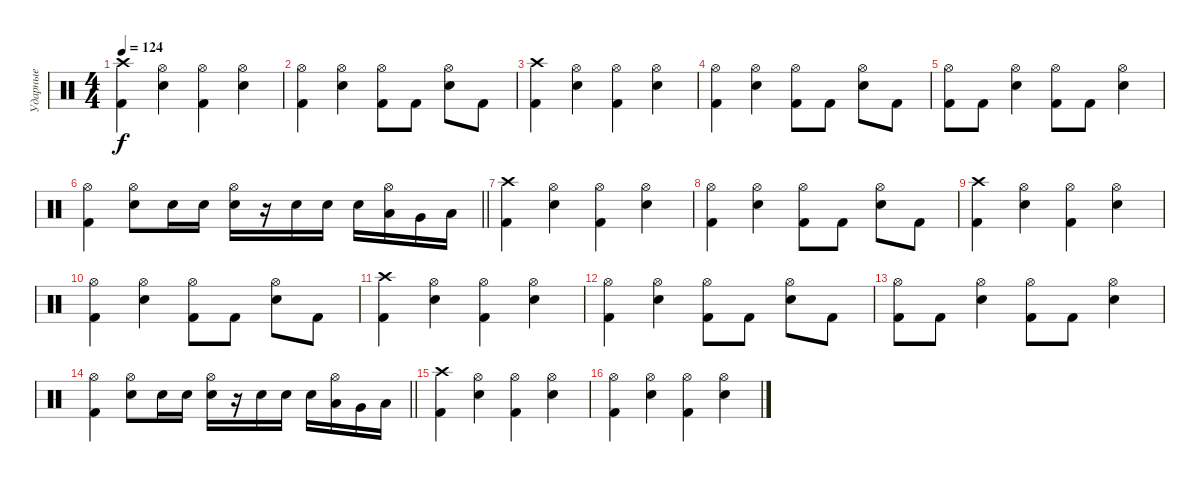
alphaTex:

\track ("Ударные" "Ударные") {instrument percussion}
\staff {score}
\articulation defaults
\ts (4 4)
\tempo 124
\clef neutral
\ks c
("Crash high (hit)" "Kick (hit) 2").4{dy f} ("Electric Snare (hit)" "Hi-Hat (open)").4 ("Kick (hit) 2" "Hi-Hat (open)").4 ("Electric Snare (hit)" "Hi-Hat (open)").4 |
("Kick (hit) 2" "Hi-Hat (open)").4 ("Electric Snare (hit)" "Hi-Hat (open)").4 ("Kick (hit) 2" "Hi-Hat (open)").8 "Kick (hit) 2".8 ("Electric Snare (hit)" "Hi-Hat (open)").8 "Kick (hit) 2".8 |
("Crash high (hit)" "Kick (hit) 2").4 ("Electric Snare (hit)" "Hi-Hat (open)").4 ("Kick (hit) 2" "Hi-Hat (open)").4 ("Electric Snare (hit)" "Hi-Hat (open)").4 |
("Kick (hit) 2" "Hi-Hat (open)").4 ("Electric Snare (hit)" "Hi-Hat (open)").4 ("Kick (hit) 2" "Hi-Hat (open)").8 "Kick (hit) 2".8 ("Electric Snare (hit)" "Hi-Hat (open)").8 "Kick (hit) 2".8 |
("Kick (hit) 2" "Hi-Hat (open)").8 "Kick (hit) 2".8 ("Electric Snare (hit)" "Hi-Hat (open)").4 ("Kick (hit) 2" "Hi-Hat (open)").8 "Kick (hit) 2".8 ("Electric Snare (hit)" "Hi-Hat (open)").4 |
\barLineRight lightlight
("Kick (hit) 2" "Hi-Hat (open)").4 ("Electric Snare (hit)" "Hi-Hat (open)").8 "Electric Snare (hit)".16 "Electric Snare (hit)".16 ("Electric Snare (hit)" "Hi-Hat (open)").16 r.16 "Electric Snare (hit)".16 "Electric Snare (hit)".16 "Electric Snare (hit)".16 ("Low Floor Tom (hit)" "Hi-Hat (open)").16 "Very Low Tom (hit)".16 "Low Floor Tom (hit)".16 |
("Crash high (hit)" "Kick (hit) 2").4 ("Electric Snare (hit)" "Hi-Hat (open)").4 ("Kick (hit) 2" "Hi-Hat (open)").4 ("Electric Snare (hit)" "Hi-Hat (open)").4 |
("Kick (hit) 2" "Hi-Hat (open)").4 ("Electric Snare (hit)" "Hi-Hat (open)").4 ("Kick (hit) 2" "Hi-Hat (open)").8 "Kick (hit) 2".8 ("Electric Snare (hit)" "Hi-Hat (open)").8 "Kick (hit) 2".8 |
("Crash high (hit)" "Kick (hit) 2").4 ("Electric Snare (hit)" "Hi-Hat (open)").4 ("Kick (hit) 2" "Hi-Hat (open)").4 ("Electric Snare (hit)" "Hi-Hat (open)").4 |
("Kick (hit) 2" "Hi-Hat (open)").4 ("Electric Snare (hit)" "Hi-Hat (open)").4 ("Kick (hit) 2" "Hi-Hat (open)").8 "Kick (hit) 2".8 ("Electric Snare (hit)" "Hi-Hat (open)").8 "Kick (hit) 2".8 |
("Crash high (hit)" "Kick (hit) 2").4 ("Electric Snare (hit)" "Hi-Hat (open)").4 ("Kick (hit) 2" "Hi-Hat (open)").4 ("Electric Snare (hit)" "Hi-Hat (open)").4 |
("Kick (hit) 2" "Hi-Hat (open)").4 ("Electric Snare (hit)" "Hi-Hat (open)").4 ("Kick (hit) 2" "Hi-Hat (open)").8 "Kick (hit) 2".8 ("Electric Snare (hit)" "Hi-Hat (open)").8 "Kick (hit) 2".8 |
("Kick (hit) 2" "Hi-Hat (open)").8 "Kick (hit) 2".8 ("Electric Snare (hit)" "Hi-Hat (open)").4 ("Kick (hit) 2" "Hi-Hat (open)").8 "Kick (hit) 2".8 ("Electric Snare (hit)" "Hi-Hat (open)").4 |
\barLineRight lightlight
("Kick (hit) 2" "Hi-Hat (open)").4 ("Electric Snare (hit)" "Hi-Hat (open)").8 "Electric Snare (hit)".16 "Electric Snare (hit)".16 ("Electric Snare (hit)" "Hi-Hat (open)").16 r.16 "Electric Snare (hit)".16 "Electric Snare (hit)".16 "Electric Snare (hit)".16 ("Low Floor Tom (hit)" "Hi-Hat (open)").16 "Very Low Tom (hit)".16 "Low Floor Tom (hit)".16 |
("Crash high (hit)" "Kick (hit) 2").4 ("Electric Snare (hit)" "Hi-Hat (open)").4 ("Kick (hit) 2" "Hi-Hat (open)").4 ("Electric Snare (hit)" "Hi-Hat (open)").4 |
("Kick (hit) 2" "Hi-Hat (open)").4 ("Electric Snare (hit)" "Hi-Hat (open)").4 ("Kick (hit) 2" "Hi-Hat (open)").4 ("Electric Snare (hit)" "Hi-Hat (open)").4
